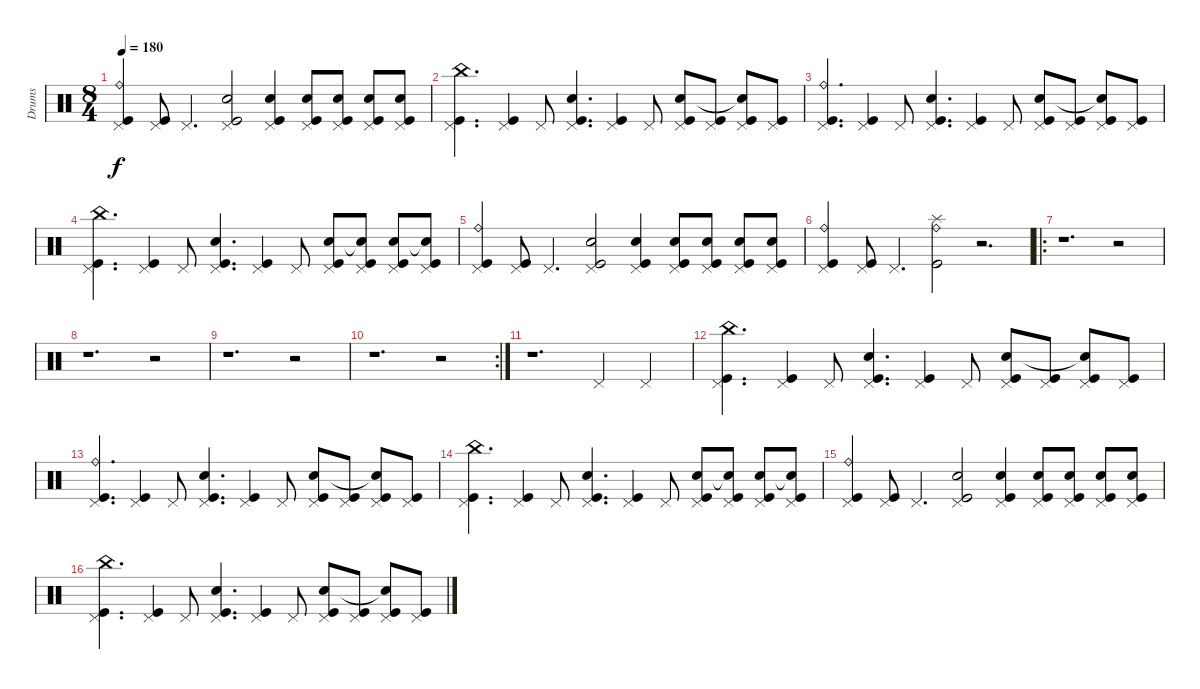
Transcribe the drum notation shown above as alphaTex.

\track ("Drums" "Drums") {instrument percussion}
\staff {score}
\articulation defaults
\ts (8 4)
\tempo 180
\clef neutral
\ks c
("Pedal Hi-Hat (hit)" "Kick (hit)" "Ride (bell)").4{dy f} ("Pedal Hi-Hat (hit)" "Kick (hit)").8 "Pedal Hi-Hat (hit)".4{d} ("Pedal Hi-Hat (hit)" "Kick (hit)" "Electric Snare (hit)").2 ("Pedal Hi-Hat (hit)" "Kick (hit)" "Electric Snare (hit)").4 ("Pedal Hi-Hat (hit)" "Kick (hit)" "Electric Snare (hit)").8 ("Pedal Hi-Hat (hit)" "Kick (hit)" "Electric Snare (hit)").8 ("Pedal Hi-Hat (hit)" "Kick (hit)" "Electric Snare (hit)").8 ("Pedal Hi-Hat (hit)" "Kick (hit)" "Electric Snare (hit)").8 |
("Pedal Hi-Hat (hit)" "Kick (hit)" "China (hit)").4{d} ("Pedal Hi-Hat (hit)" "Kick (hit)").4 "Pedal Hi-Hat (hit)".8 ("Pedal Hi-Hat (hit)" "Kick (hit)" "Electric Snare (hit)").4{d} ("Pedal Hi-Hat (hit)" "Kick (hit)").4 "Pedal Hi-Hat (hit)".8 ("Pedal Hi-Hat (hit)" "Kick (hit)" "Electric Snare (hit)").8 ("Pedal Hi-Hat (hit)" "Kick (hit)").8 ("Pedal Hi-Hat (hit)" "Kick (hit)" "Electric Snare (hit)"{t}).8 ("Pedal Hi-Hat (hit)" "Kick (hit)").8 |
("Pedal Hi-Hat (hit)" "Kick (hit)" "Ride (bell)").4{d} ("Pedal Hi-Hat (hit)" "Kick (hit)").4 "Pedal Hi-Hat (hit)".8 ("Pedal Hi-Hat (hit)" "Kick (hit)" "Electric Snare (hit)").4{d} ("Pedal Hi-Hat (hit)" "Kick (hit)").4 "Pedal Hi-Hat (hit)".8 ("Pedal Hi-Hat (hit)" "Kick (hit)" "Electric Snare (hit)").8 ("Pedal Hi-Hat (hit)" "Kick (hit)").8 ("Pedal Hi-Hat (hit)" "Kick (hit)" "Electric Snare (hit)"{t}).8 ("Pedal Hi-Hat (hit)" "Kick (hit)").8 |
("Pedal Hi-Hat (hit)" "Kick (hit)" "China (hit)").4{d} ("Pedal Hi-Hat (hit)" "Kick (hit)").4 "Pedal Hi-Hat (hit)".8 ("Pedal Hi-Hat (hit)" "Kick (hit)" "Electric Snare (hit)").4{d} ("Pedal Hi-Hat (hit)" "Kick (hit)").4 "Pedal Hi-Hat (hit)".8 ("Pedal Hi-Hat (hit)" "Kick (hit)" "Electric Snare (hit)").8 ("Pedal Hi-Hat (hit)" "Kick (hit)" "Electric Snare (hit)"{t}).8 ("Pedal Hi-Hat (hit)" "Kick (hit)" "Electric Snare (hit)").8 ("Pedal Hi-Hat (hit)" "Kick (hit)" "Electric Snare (hit)"{t}).8 |
("Pedal Hi-Hat (hit)" "Kick (hit)" "Ride (bell)").4 ("Pedal Hi-Hat (hit)" "Kick (hit)").8 "Pedal Hi-Hat (hit)".4{d} ("Pedal Hi-Hat (hit)" "Kick (hit)" "Electric Snare (hit)").2 ("Pedal Hi-Hat (hit)" "Kick (hit)" "Electric Snare (hit)").4 ("Pedal Hi-Hat (hit)" "Kick (hit)" "Electric Snare (hit)").8 ("Pedal Hi-Hat (hit)" "Kick (hit)" "Electric Snare (hit)").8 ("Pedal Hi-Hat (hit)" "Kick (hit)" "Electric Snare (hit)").8 ("Pedal Hi-Hat (hit)" "Kick (hit)" "Electric Snare (hit)").8 |
("Pedal Hi-Hat (hit)" "Kick (hit)" "Ride (bell)").4 ("Pedal Hi-Hat (hit)" "Kick (hit)").8 "Pedal Hi-Hat (hit)".4{d} ("Ride (bell)" "Kick (hit)" "Splash (hit)").2 r.2{d} |
\ro
r.1{d} r.2 |
r.1{d} r.2 |
r.1{d} r.2 |
\rc 2
r.1{d} r.2 |
r.1{d} "Pedal Hi-Hat (hit)".4 "Pedal Hi-Hat (hit)".4 |
("Pedal Hi-Hat (hit)" "Kick (hit)" "China (hit)").4{d} ("Pedal Hi-Hat (hit)" "Kick (hit)").4 "Pedal Hi-Hat (hit)".8 ("Pedal Hi-Hat (hit)" "Kick (hit)" "Electric Snare (hit)").4{d} ("Pedal Hi-Hat (hit)" "Kick (hit)").4 "Pedal Hi-Hat (hit)".8 ("Pedal Hi-Hat (hit)" "Kick (hit)" "Electric Snare (hit)").8 ("Pedal Hi-Hat (hit)" "Kick (hit)").8 ("Pedal Hi-Hat (hit)" "Kick (hit)" "Electric Snare (hit)"{t}).8 ("Pedal Hi-Hat (hit)" "Kick (hit)").8 |
("Pedal Hi-Hat (hit)" "Kick (hit)" "Ride (bell)").4{d} ("Pedal Hi-Hat (hit)" "Kick (hit)").4 "Pedal Hi-Hat (hit)".8 ("Pedal Hi-Hat (hit)" "Kick (hit)" "Electric Snare (hit)").4{d} ("Pedal Hi-Hat (hit)" "Kick (hit)").4 "Pedal Hi-Hat (hit)".8 ("Pedal Hi-Hat (hit)" "Kick (hit)" "Electric Snare (hit)").8 ("Pedal Hi-Hat (hit)" "Kick (hit)").8 ("Pedal Hi-Hat (hit)" "Kick (hit)" "Electric Snare (hit)"{t}).8 ("Pedal Hi-Hat (hit)" "Kick (hit)").8 |
("Pedal Hi-Hat (hit)" "Kick (hit)" "China (hit)").4{d} ("Pedal Hi-Hat (hit)" "Kick (hit)").4 "Pedal Hi-Hat (hit)".8 ("Pedal Hi-Hat (hit)" "Kick (hit)" "Electric Snare (hit)").4{d} ("Pedal Hi-Hat (hit)" "Kick (hit)").4 "Pedal Hi-Hat (hit)".8 ("Pedal Hi-Hat (hit)" "Kick (hit)" "Electric Snare (hit)").8 ("Pedal Hi-Hat (hit)" "Kick (hit)" "Electric Snare (hit)"{t}).8 ("Pedal Hi-Hat (hit)" "Kick (hit)" "Electric Snare (hit)").8 ("Pedal Hi-Hat (hit)" "Kick (hit)" "Electric Snare (hit)"{t}).8 |
("Pedal Hi-Hat (hit)" "Kick (hit)" "Ride (bell)").4 ("Pedal Hi-Hat (hit)" "Kick (hit)").8 "Pedal Hi-Hat (hit)".4{d} ("Pedal Hi-Hat (hit)" "Kick (hit)" "Electric Snare (hit)").2 ("Pedal Hi-Hat (hit)" "Kick (hit)" "Electric Snare (hit)").4 ("Pedal Hi-Hat (hit)" "Kick (hit)" "Electric Snare (hit)").8 ("Pedal Hi-Hat (hit)" "Kick (hit)" "Electric Snare (hit)").8 ("Pedal Hi-Hat (hit)" "Kick (hit)" "Electric Snare (hit)").8 ("Pedal Hi-Hat (hit)" "Kick (hit)" "Electric Snare (hit)").8 |
("Pedal Hi-Hat (hit)" "Kick (hit)" "China (hit)").4{d} ("Pedal Hi-Hat (hit)" "Kick (hit)").4 "Pedal Hi-Hat (hit)".8 ("Pedal Hi-Hat (hit)" "Kick (hit)" "Electric Snare (hit)").4{d} ("Pedal Hi-Hat (hit)" "Kick (hit)").4 "Pedal Hi-Hat (hit)".8 ("Pedal Hi-Hat (hit)" "Kick (hit)" "Electric Snare (hit)").8 ("Pedal Hi-Hat (hit)" "Kick (hit)").8 ("Pedal Hi-Hat (hit)" "Kick (hit)" "Electric Snare (hit)"{t}).8 ("Pedal Hi-Hat (hit)" "Kick (hit)").8
